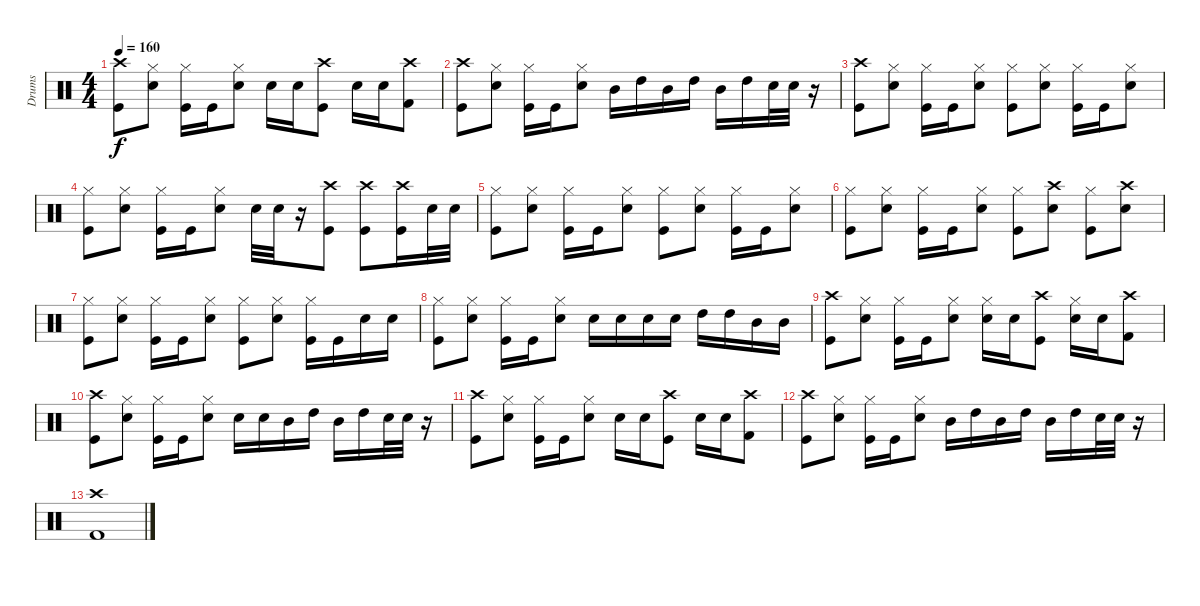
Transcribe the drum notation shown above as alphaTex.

\track ("Drums" "Drums") {instrument percussion}
\staff {score}
\articulation defaults
\ts (4 4)
\tempo 160
\clef neutral
\ks c
("Crash high (hit)" "Kick (hit)").8{dy f} ("Hi-Hat (closed)" "Electric Snare (hit)").8 ("Hi-Hat (closed)" "Kick (hit)").16 "Kick (hit)".16 ("Hi-Hat (closed)" "Electric Snare (hit)").8 "Electric Snare (hit)".16 "Electric Snare (hit)".16 ("Crash high (hit)" "Kick (hit)").8 "Electric Snare (hit)".16 "Electric Snare (hit)".16 ("Crash high (hit)" "Kick (hit) 2").8 |
("Crash high (hit)" "Kick (hit)").8 ("Hi-Hat (closed)" "Electric Snare (hit)").8 ("Hi-Hat (closed)" "Kick (hit)").16 "Kick (hit)".16 ("Hi-Hat (closed)" "Electric Snare (hit)").8 "Mid Tom (hit)".16 "High Tom (hit)".16 "Mid Tom (hit)".16 "High Tom (hit)".16 "Mid Tom (hit)".16 "High Tom (hit)".16 "Electric Snare (hit)".32 "Electric Snare (hit)".32 r.16 |
("Crash high (hit)" "Kick (hit)").8 ("Hi-Hat (closed)" "Electric Snare (hit)").8 ("Hi-Hat (closed)" "Kick (hit)").16 "Kick (hit)".16 ("Hi-Hat (closed)" "Electric Snare (hit)").8 ("Hi-Hat (closed)" "Kick (hit)").8 ("Hi-Hat (closed)" "Electric Snare (hit)").8 ("Hi-Hat (closed)" "Kick (hit)").16 "Kick (hit)".16 ("Hi-Hat (closed)" "Electric Snare (hit)").8 |
("Hi-Hat (closed)" "Kick (hit)").8 ("Hi-Hat (closed)" "Electric Snare (hit)").8 ("Hi-Hat (closed)" "Kick (hit)").16 "Kick (hit)".16 ("Hi-Hat (closed)" "Electric Snare (hit)").8 "Electric Snare (hit)".32 "Electric Snare (hit)".32 r.16 ("Crash high (hit)" "Kick (hit)").8 ("Crash high (hit)" "Kick (hit)").8 ("Crash high (hit)" "Kick (hit)").16 "Electric Snare (hit)".32 "Electric Snare (hit)".32 |
("Hi-Hat (closed)" "Kick (hit)").8 ("Hi-Hat (closed)" "Electric Snare (hit)").8 ("Hi-Hat (closed)" "Kick (hit)").16 "Kick (hit)".16 ("Hi-Hat (closed)" "Electric Snare (hit)").8 ("Hi-Hat (closed)" "Kick (hit)").8 ("Hi-Hat (closed)" "Electric Snare (hit)").8 ("Hi-Hat (closed)" "Kick (hit)").16 "Kick (hit)".16 ("Hi-Hat (closed)" "Electric Snare (hit)").8 |
("Hi-Hat (closed)" "Kick (hit)").8 ("Hi-Hat (closed)" "Electric Snare (hit)").8 ("Hi-Hat (closed)" "Kick (hit)").16 "Kick (hit)".16 ("Hi-Hat (closed)" "Electric Snare (hit)").8 ("Hi-Hat (closed)" "Kick (hit)").8 ("Crash high (hit)" "Electric Snare (hit)").8 ("Hi-Hat (closed)" "Kick (hit)").8 ("Crash high (hit)" "Electric Snare (hit)").8 |
("Hi-Hat (closed)" "Kick (hit)").8 ("Hi-Hat (closed)" "Electric Snare (hit)").8 ("Hi-Hat (closed)" "Kick (hit)").16 "Kick (hit)".16 ("Hi-Hat (closed)" "Electric Snare (hit)").8 ("Hi-Hat (closed)" "Kick (hit)").8 ("Hi-Hat (closed)" "Electric Snare (hit)").8 ("Hi-Hat (closed)" "Kick (hit)").16 "Kick (hit)".16 "Electric Snare (hit)".16 "Electric Snare (hit)".16 |
("Hi-Hat (closed)" "Kick (hit)").8 ("Hi-Hat (closed)" "Electric Snare (hit)").8 ("Hi-Hat (closed)" "Kick (hit)").16 "Kick (hit)".16 ("Hi-Hat (closed)" "Electric Snare (hit)").8 "Electric Snare (hit)".16 "Electric Snare (hit)".16 "Electric Snare (hit)".16 "Electric Snare (hit)".16 "High Tom (hit)".16 "High Tom (hit)".16 "Mid Tom (hit)".16 "Mid Tom (hit)".16 |
("Crash high (hit)" "Kick (hit)").8 ("Hi-Hat (closed)" "Electric Snare (hit)").8 ("Hi-Hat (closed)" "Kick (hit)").16 "Kick (hit)".16 ("Hi-Hat (closed)" "Electric Snare (hit)").8 ("Hi-Hat (closed)" "Electric Snare (hit)").16 "Electric Snare (hit)".16 ("Crash high (hit)" "Kick (hit)").8 ("Hi-Hat (closed)" "Electric Snare (hit)").16 "Electric Snare (hit)".16 ("Crash high (hit)" "Kick (hit) 2").8 |
("Crash high (hit)" "Kick (hit)").8 ("Hi-Hat (closed)" "Electric Snare (hit)").8 ("Hi-Hat (closed)" "Kick (hit)").16 "Kick (hit)".16 ("Hi-Hat (closed)" "Electric Snare (hit)").8 "Electric Snare (hit)".16 "Electric Snare (hit)".16 "Mid Tom (hit)".16 "High Tom (hit)".16 "Mid Tom (hit)".16 "High Tom (hit)".16 "Electric Snare (hit)".32 "Electric Snare (hit)".32 r.16 |
("Crash high (hit)" "Kick (hit)").8 ("Hi-Hat (closed)" "Electric Snare (hit)").8 ("Hi-Hat (closed)" "Kick (hit)").16 "Kick (hit)".16 ("Hi-Hat (closed)" "Electric Snare (hit)").8 "Electric Snare (hit)".16 "Electric Snare (hit)".16 ("Crash high (hit)" "Kick (hit)").8 "Electric Snare (hit)".16 "Electric Snare (hit)".16 ("Crash high (hit)" "Kick (hit) 2").8 |
("Crash high (hit)" "Kick (hit)").8 ("Hi-Hat (closed)" "Electric Snare (hit)").8 ("Hi-Hat (closed)" "Kick (hit)").16 "Kick (hit)".16 ("Hi-Hat (closed)" "Electric Snare (hit)").8 "Mid Tom (hit)".16 "High Tom (hit)".16 "Mid Tom (hit)".16 "High Tom (hit)".16 "Mid Tom (hit)".16 "High Tom (hit)".16 "Electric Snare (hit)".32 "Electric Snare (hit)".32 r.16 |
("Crash high (hit)" "Kick (hit) 2").1
